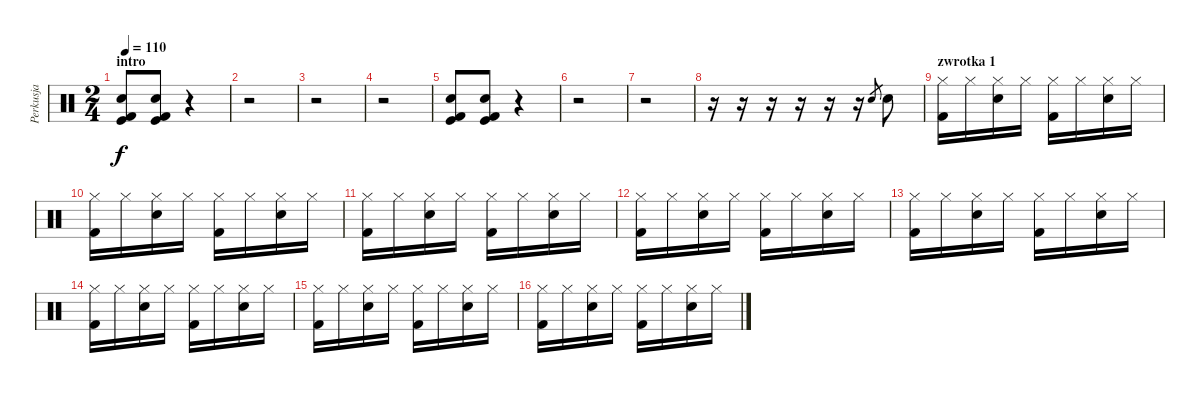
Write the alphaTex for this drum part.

\track ("Perkusja" "Perkusja") {instrument percussion}
\staff {score}
\articulation defaults
\ts (2 4)
\section ("" "intro")
\tempo 110
\clef neutral
\ks c
("Kick (hit)" "Kick (hit) 2" "Snare (hit) 2").8{dy f} ("Kick (hit)" "Kick (hit) 2" "Snare (hit) 2").8 r.4 |
r.2 |
r.2 |
r.2 |
("Kick (hit)" "Kick (hit) 2" "Snare (hit) 2").8 ("Kick (hit)" "Kick (hit) 2" "Snare (hit) 2").8 r.4 |
r.2 |
r.2 |
r.16 r.16 r.16 r.16 r.16 r.16 "Snare (hit) 2".8{gr} "Electric Snare (hit)".8 |
\section ("" "zwrotka 1")
("Kick (hit) 2" "Hi-Hat (closed)").16 "Hi-Hat (closed)".16 ("Electric Snare (hit)" "Hi-Hat (closed)").16 "Hi-Hat (closed)".16 ("Kick (hit) 2" "Hi-Hat (closed)").16 "Hi-Hat (closed)".16 ("Electric Snare (hit)" "Hi-Hat (closed)").16 "Hi-Hat (closed)".16 |
("Kick (hit) 2" "Hi-Hat (closed)").16 "Hi-Hat (closed)".16 ("Electric Snare (hit)" "Hi-Hat (closed)").16 "Hi-Hat (closed)".16 ("Kick (hit) 2" "Hi-Hat (closed)").16 "Hi-Hat (closed)".16 ("Electric Snare (hit)" "Hi-Hat (closed)").16 "Hi-Hat (closed)".16 |
("Kick (hit) 2" "Hi-Hat (closed)").16 "Hi-Hat (closed)".16 ("Electric Snare (hit)" "Hi-Hat (closed)").16 "Hi-Hat (closed)".16 ("Kick (hit) 2" "Hi-Hat (closed)").16 "Hi-Hat (closed)".16 ("Electric Snare (hit)" "Hi-Hat (closed)").16 "Hi-Hat (closed)".16 |
("Kick (hit) 2" "Hi-Hat (closed)").16 "Hi-Hat (closed)".16 ("Electric Snare (hit)" "Hi-Hat (closed)").16 "Hi-Hat (closed)".16 ("Kick (hit) 2" "Hi-Hat (closed)").16 "Hi-Hat (closed)".16 ("Electric Snare (hit)" "Hi-Hat (closed)").16 "Hi-Hat (closed)".16 |
("Kick (hit) 2" "Hi-Hat (closed)").16 "Hi-Hat (closed)".16 ("Electric Snare (hit)" "Hi-Hat (closed)").16 "Hi-Hat (closed)".16 ("Kick (hit) 2" "Hi-Hat (closed)").16 "Hi-Hat (closed)".16 ("Electric Snare (hit)" "Hi-Hat (closed)").16 "Hi-Hat (closed)".16 |
("Kick (hit) 2" "Hi-Hat (closed)").16 "Hi-Hat (closed)".16 ("Electric Snare (hit)" "Hi-Hat (closed)").16 "Hi-Hat (closed)".16 ("Kick (hit) 2" "Hi-Hat (closed)").16 "Hi-Hat (closed)".16 ("Electric Snare (hit)" "Hi-Hat (closed)").16 "Hi-Hat (closed)".16 |
("Kick (hit) 2" "Hi-Hat (closed)").16 "Hi-Hat (closed)".16 ("Electric Snare (hit)" "Hi-Hat (closed)").16 "Hi-Hat (closed)".16 ("Kick (hit) 2" "Hi-Hat (closed)").16 "Hi-Hat (closed)".16 ("Electric Snare (hit)" "Hi-Hat (closed)").16 "Hi-Hat (closed)".16 |
("Kick (hit) 2" "Hi-Hat (closed)").16 "Hi-Hat (closed)".16 ("Electric Snare (hit)" "Hi-Hat (closed)").16 "Hi-Hat (closed)".16 ("Kick (hit) 2" "Hi-Hat (closed)").16 "Hi-Hat (closed)".16 ("Electric Snare (hit)" "Hi-Hat (closed)").16 "Hi-Hat (closed)".16
